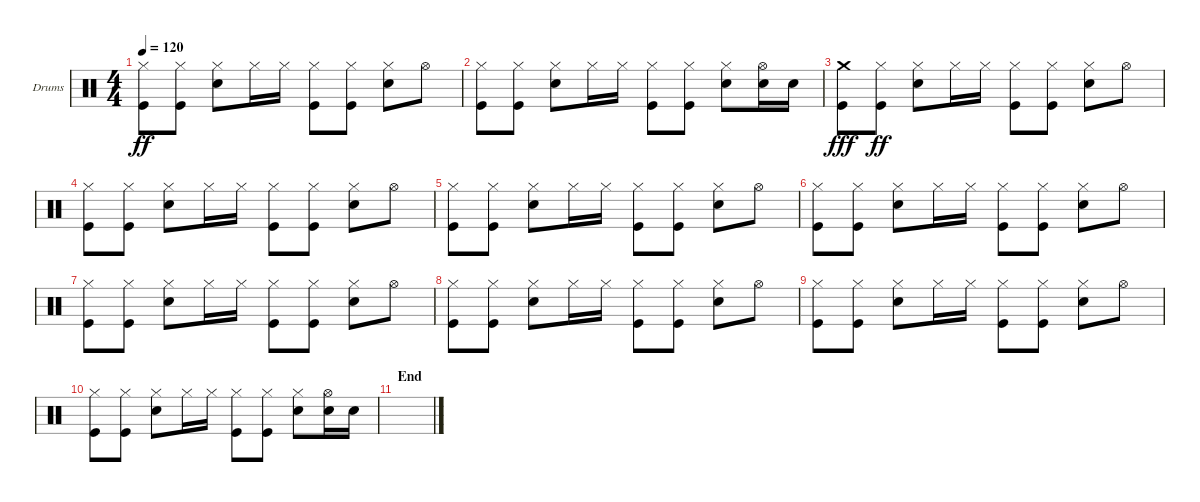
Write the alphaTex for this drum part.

\defaultSystemsLayout 4
\bracketExtendMode groupsimilarinstruments
\firstSystemTrackNameOrientation horizontal
\otherSystemsTrackNameOrientation horizontal
\track ("Drumkit" "Drums") {instrument percussion}
\staff {score}
\articulation defaults
\ts (4 4)
\tempo 120
\clef neutral
\ks c
("Hi-Hat (closed)" "Kick (hit)").8{dy ff} ("Hi-Hat (closed)" "Kick (hit)").8 ("Snare (hit) 2" "Hi-Hat (closed)").8 "Hi-Hat (closed)".16 "Hi-Hat (closed)".16 ("Kick (hit)" "Hi-Hat (closed)").8 ("Hi-Hat (closed)" "Kick (hit)").8 ("Hi-Hat (closed)" "Snare (hit) 2").8 "Hi-Hat (open)".8 |
("Kick (hit)" "Hi-Hat (closed)").8 ("Hi-Hat (closed)" "Kick (hit)").8 ("Snare (hit) 2" "Hi-Hat (closed)").8 "Hi-Hat (closed)".16 "Hi-Hat (closed)".16 ("Hi-Hat (closed)" "Kick (hit)").8 ("Hi-Hat (closed)" "Kick (hit)").8 ("Hi-Hat (closed)" "Snare (hit) 2").8 ("Hi-Hat (open)" "Snare (hit) 2").16 "Snare (hit) 2".16 |
("Crash medium (hit)" "Kick (hit)").8{dy fff} ("Kick (hit)" "Hi-Hat (closed)").8{dy ff} ("Hi-Hat (closed)" "Snare (hit) 2").8 "Hi-Hat (closed)".16 "Hi-Hat (closed)".16 ("Kick (hit)" "Hi-Hat (closed)").8 ("Kick (hit)" "Hi-Hat (closed)").8 ("Hi-Hat (closed)" "Snare (hit) 2").8 "Hi-Hat (open)".8 |
("Kick (hit)" "Hi-Hat (closed)").8 ("Kick (hit)" "Hi-Hat (closed)").8 ("Hi-Hat (closed)" "Snare (hit) 2").8 "Hi-Hat (closed)".16 "Hi-Hat (closed)".16 ("Hi-Hat (closed)" "Kick (hit)").8 ("Kick (hit)" "Hi-Hat (closed)").8 ("Snare (hit) 2" "Hi-Hat (closed)").8 "Hi-Hat (open)".8 |
("Hi-Hat (closed)" "Kick (hit)").8 ("Hi-Hat (closed)" "Kick (hit)").8 ("Hi-Hat (closed)" "Snare (hit) 2").8 "Hi-Hat (closed)".16 "Hi-Hat (closed)".16 ("Hi-Hat (closed)" "Kick (hit)").8 ("Hi-Hat (closed)" "Kick (hit)").8 ("Hi-Hat (closed)" "Snare (hit) 2").8 "Hi-Hat (open)".8 |
("Hi-Hat (closed)" "Kick (hit)").8 ("Hi-Hat (closed)" "Kick (hit)").8 ("Hi-Hat (closed)" "Snare (hit) 2").8 "Hi-Hat (closed)".16 "Hi-Hat (closed)".16 ("Hi-Hat (closed)" "Kick (hit)").8 ("Kick (hit)" "Hi-Hat (closed)").8 ("Snare (hit) 2" "Hi-Hat (closed)").8 "Hi-Hat (open)".8 |
("Hi-Hat (closed)" "Kick (hit)").8 ("Hi-Hat (closed)" "Kick (hit)").8 ("Hi-Hat (closed)" "Snare (hit) 2").8 "Hi-Hat (closed)".16 "Hi-Hat (closed)".16 ("Kick (hit)" "Hi-Hat (closed)").8 ("Hi-Hat (closed)" "Kick (hit)").8 ("Hi-Hat (closed)" "Snare (hit) 2").8 "Hi-Hat (open)".8 |
("Hi-Hat (closed)" "Kick (hit)").8 ("Hi-Hat (closed)" "Kick (hit)").8 ("Hi-Hat (closed)" "Snare (hit) 2").8 "Hi-Hat (closed)".16 "Hi-Hat (closed)".16 ("Hi-Hat (closed)" "Kick (hit)").8 ("Hi-Hat (closed)" "Kick (hit)").8 ("Hi-Hat (closed)" "Snare (hit) 2").8 "Hi-Hat (open)".8 |
("Hi-Hat (closed)" "Kick (hit)").8 ("Hi-Hat (closed)" "Kick (hit)").8 ("Snare (hit) 2" "Hi-Hat (closed)").8 "Hi-Hat (closed)".16 "Hi-Hat (closed)".16 ("Kick (hit)" "Hi-Hat (closed)").8 ("Hi-Hat (closed)" "Kick (hit)").8 ("Hi-Hat (closed)" "Snare (hit) 2").8 "Hi-Hat (open)".8 |
("Kick (hit)" "Hi-Hat (closed)").8 ("Hi-Hat (closed)" "Kick (hit)").8 ("Snare (hit) 2" "Hi-Hat (closed)").8 "Hi-Hat (closed)".16 "Hi-Hat (closed)".16 ("Hi-Hat (closed)" "Kick (hit)").8 ("Hi-Hat (closed)" "Kick (hit)").8 ("Hi-Hat (closed)" "Snare (hit) 2").8 ("Hi-Hat (open)" "Snare (hit) 2").16 "Snare (hit) 2".16 |
\section ("" "End")
